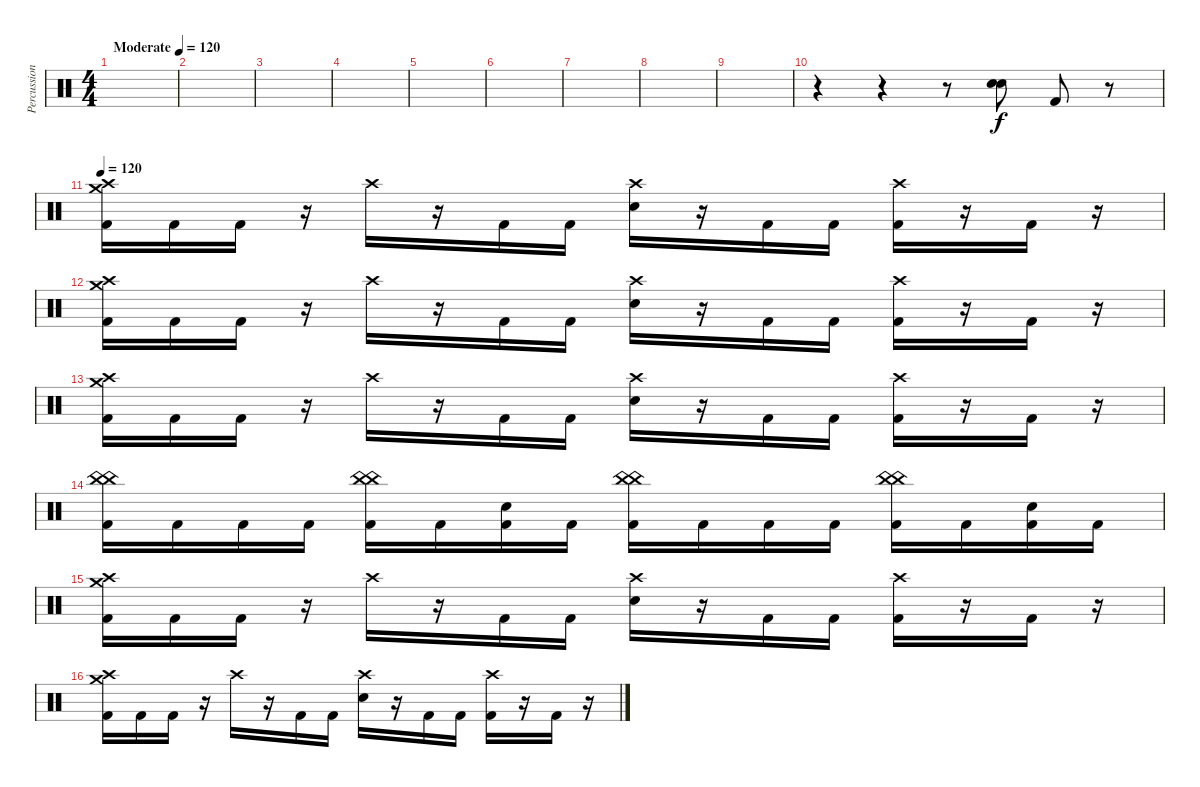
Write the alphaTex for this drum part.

\track ("Percussion" "Percussion") {instrument percussion}
\staff {score}
\articulation defaults
\ts (4 4)
\tempo (120 "Moderate")
\clef neutral
\ks c
|
|
|
|
|
|
|
|
|
r.4 r.4 r.8 ("Electric Snare (hit)" "Electric Snare (hit)").8{bd 480} "Kick (hit) 2".8 r.8 |
\tempo 120
("Crash medium (hit)" "Crash high (hit)" "Kick (hit) 2").16 "Kick (hit) 2".16 "Kick (hit) 2".16 r.16 "Crash high (hit)".16 r.16 "Kick (hit) 2".16 "Kick (hit) 2".16 ("Crash high (hit)" "Electric Snare (hit)").16 r.16 "Kick (hit) 2".16 "Kick (hit) 2".16 ("Crash high (hit)" "Kick (hit) 2").16 r.16 "Kick (hit) 2".16 r.16 |
("Crash medium (hit)" "Crash high (hit)" "Kick (hit) 2").16 "Kick (hit) 2".16 "Kick (hit) 2".16 r.16 "Crash high (hit)".16 r.16 "Kick (hit) 2".16 "Kick (hit) 2".16 ("Crash high (hit)" "Electric Snare (hit)").16 r.16 "Kick (hit) 2".16 "Kick (hit) 2".16 ("Crash high (hit)" "Kick (hit) 2").16 r.16 "Kick (hit) 2".16 r.16 |
("Crash medium (hit)" "Crash high (hit)" "Kick (hit) 2").16 "Kick (hit) 2".16 "Kick (hit) 2".16 r.16 "Crash high (hit)".16 r.16 "Kick (hit) 2".16 "Kick (hit) 2".16 ("Crash high (hit)" "Electric Snare (hit)").16 r.16 "Kick (hit) 2".16 "Kick (hit) 2".16 ("Crash high (hit)" "Kick (hit) 2").16 r.16 "Kick (hit) 2".16 r.16 |
("China (hit)" "China (hit)" "Kick (hit) 2").16 "Kick (hit) 2".16 "Kick (hit) 2".16 "Kick (hit) 2".16 ("China (hit)" "China (hit)" "Kick (hit) 2").16 "Kick (hit) 2".16 ("Electric Snare (hit)" "Kick (hit) 2").16 "Kick (hit) 2".16 ("China (hit)" "China (hit)" "Kick (hit) 2").16 "Kick (hit) 2".16 "Kick (hit) 2".16 "Kick (hit) 2".16 ("China (hit)" "China (hit)" "Kick (hit) 2").16 "Kick (hit) 2".16 ("Electric Snare (hit)" "Kick (hit) 2").16 "Kick (hit) 2".16 |
("Crash medium (hit)" "Crash high (hit)" "Kick (hit) 2").16 "Kick (hit) 2".16 "Kick (hit) 2".16 r.16 "Crash high (hit)".16 r.16 "Kick (hit) 2".16 "Kick (hit) 2".16 ("Crash high (hit)" "Electric Snare (hit)").16 r.16 "Kick (hit) 2".16 "Kick (hit) 2".16 ("Crash high (hit)" "Kick (hit) 2").16 r.16 "Kick (hit) 2".16 r.16 |
("Crash medium (hit)" "Crash high (hit)" "Kick (hit) 2").16 "Kick (hit) 2".16 "Kick (hit) 2".16 r.16 "Crash high (hit)".16 r.16 "Kick (hit) 2".16 "Kick (hit) 2".16 ("Crash high (hit)" "Electric Snare (hit)").16 r.16 "Kick (hit) 2".16 "Kick (hit) 2".16 ("Crash high (hit)" "Kick (hit) 2").16 r.16 "Kick (hit) 2".16 r.16
